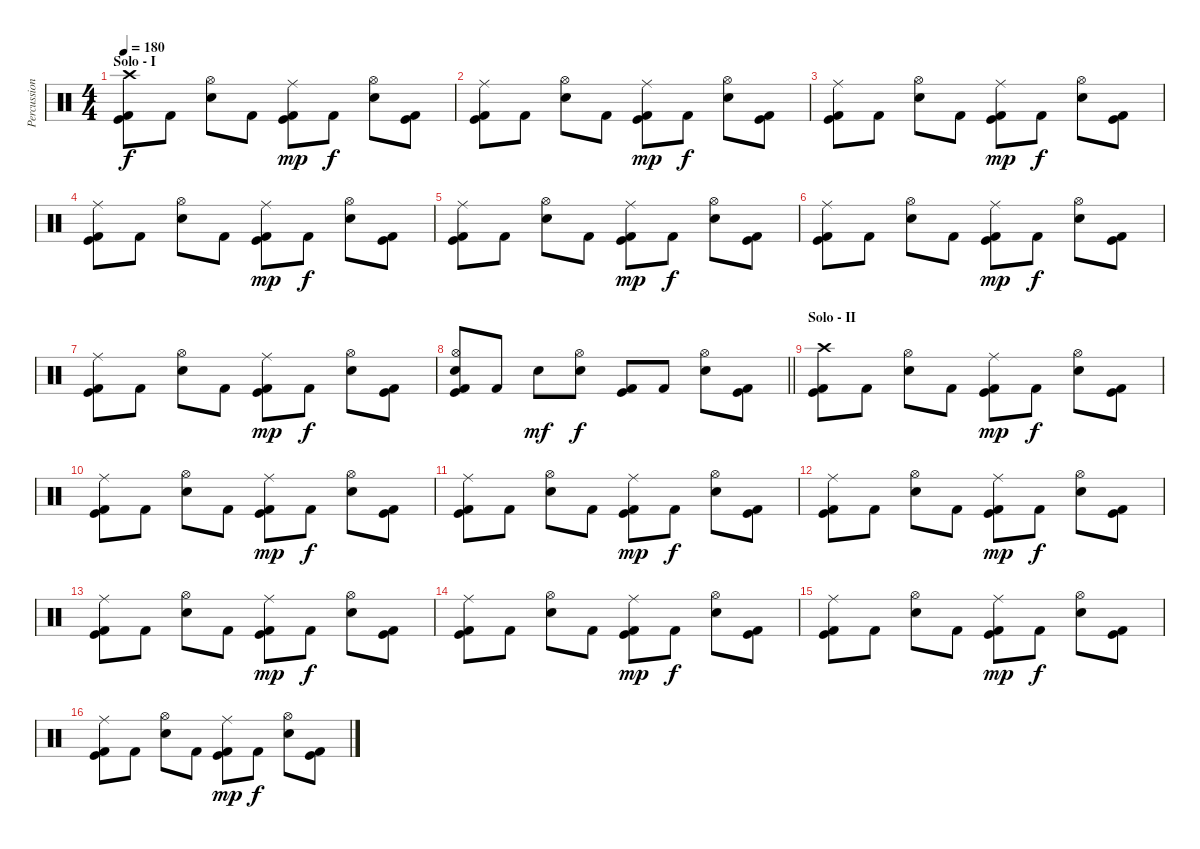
\track ("Percussion" "Percussion") {instrument percussion}
\staff {score}
\articulation defaults
\ts (4 4)
\section ("" "Solo - I")
\tempo 180
\clef neutral
\ks c
("Crash high (hit)" "Kick (hit)" "Kick (hit) 2").8{dy f} "Kick (hit) 2".8 ("Hi-Hat (open)" "Snare (hit) 2").8 "Kick (hit) 2".8 ("Ride (middle)" "Kick (hit)" "Kick (hit) 2").8{dy mp} "Kick (hit) 2".8{dy f} ("Hi-Hat (open)" "Snare (hit) 2").8 ("Kick (hit)" "Kick (hit) 2").8 |
("Ride (middle)" "Kick (hit)" "Kick (hit) 2").8 "Kick (hit) 2".8 ("Hi-Hat (open)" "Snare (hit) 2").8 "Kick (hit) 2".8 ("Ride (middle)" "Kick (hit)" "Kick (hit) 2").8{dy mp} "Kick (hit) 2".8{dy f} ("Hi-Hat (open)" "Snare (hit) 2").8 ("Kick (hit)" "Kick (hit) 2").8 |
("Ride (middle)" "Kick (hit)" "Kick (hit) 2").8 "Kick (hit) 2".8 ("Hi-Hat (open)" "Snare (hit) 2").8 "Kick (hit) 2".8 ("Ride (middle)" "Kick (hit)" "Kick (hit) 2").8{dy mp} "Kick (hit) 2".8{dy f} ("Hi-Hat (open)" "Snare (hit) 2").8 ("Kick (hit)" "Kick (hit) 2").8 |
("Ride (middle)" "Kick (hit)" "Kick (hit) 2").8 "Kick (hit) 2".8 ("Hi-Hat (open)" "Snare (hit) 2").8 "Kick (hit) 2".8 ("Ride (middle)" "Kick (hit)" "Kick (hit) 2").8{dy mp} "Kick (hit) 2".8{dy f} ("Hi-Hat (open)" "Snare (hit) 2").8 ("Kick (hit)" "Kick (hit) 2").8 |
("Ride (middle)" "Kick (hit)" "Kick (hit) 2").8 "Kick (hit) 2".8 ("Hi-Hat (open)" "Snare (hit) 2").8 "Kick (hit) 2".8 ("Ride (middle)" "Kick (hit)" "Kick (hit) 2").8{dy mp} "Kick (hit) 2".8{dy f} ("Hi-Hat (open)" "Snare (hit) 2").8 ("Kick (hit)" "Kick (hit) 2").8 |
("Ride (middle)" "Kick (hit)" "Kick (hit) 2").8 "Kick (hit) 2".8 ("Hi-Hat (open)" "Snare (hit) 2").8 "Kick (hit) 2".8 ("Ride (middle)" "Kick (hit)" "Kick (hit) 2").8{dy mp} "Kick (hit) 2".8{dy f} ("Hi-Hat (open)" "Snare (hit) 2").8 ("Kick (hit)" "Kick (hit) 2").8 |
("Ride (middle)" "Kick (hit)" "Kick (hit) 2").8 "Kick (hit) 2".8 ("Hi-Hat (open)" "Snare (hit) 2").8 "Kick (hit) 2".8 ("Ride (middle)" "Kick (hit)" "Kick (hit) 2").8{dy mp} "Kick (hit) 2".8{dy f} ("Hi-Hat (open)" "Snare (hit) 2").8 ("Kick (hit)" "Kick (hit) 2").8 |
\barLineRight lightlight
("Hi-Hat (open)" "Snare (hit) 2" "Kick (hit)" "Kick (hit) 2").8 "Kick (hit) 2".8 "Snare (hit) 2".8{dy mf} ("Hi-Hat (open)" "Snare (hit) 2").8{dy f} ("Kick (hit)" "Kick (hit) 2").8 "Kick (hit) 2".8 ("Hi-Hat (open)" "Snare (hit) 2").8 ("Kick (hit)" "Kick (hit) 2").8 |
\section ("" "Solo - II")
("Crash high (hit)" "Kick (hit)" "Kick (hit) 2").8 "Kick (hit) 2".8 ("Hi-Hat (open)" "Snare (hit) 2").8 "Kick (hit) 2".8 ("Ride (middle)" "Kick (hit)" "Kick (hit) 2").8{dy mp} "Kick (hit) 2".8{dy f} ("Hi-Hat (open)" "Snare (hit) 2").8 ("Kick (hit)" "Kick (hit) 2").8 |
("Ride (middle)" "Kick (hit)" "Kick (hit) 2").8 "Kick (hit) 2".8 ("Hi-Hat (open)" "Snare (hit) 2").8 "Kick (hit) 2".8 ("Ride (middle)" "Kick (hit)" "Kick (hit) 2").8{dy mp} "Kick (hit) 2".8{dy f} ("Hi-Hat (open)" "Snare (hit) 2").8 ("Kick (hit)" "Kick (hit) 2").8 |
("Ride (middle)" "Kick (hit)" "Kick (hit) 2").8 "Kick (hit) 2".8 ("Hi-Hat (open)" "Snare (hit) 2").8 "Kick (hit) 2".8 ("Ride (middle)" "Kick (hit)" "Kick (hit) 2").8{dy mp} "Kick (hit) 2".8{dy f} ("Hi-Hat (open)" "Snare (hit) 2").8 ("Kick (hit)" "Kick (hit) 2").8 |
("Ride (middle)" "Kick (hit)" "Kick (hit) 2").8 "Kick (hit) 2".8 ("Hi-Hat (open)" "Snare (hit) 2").8 "Kick (hit) 2".8 ("Ride (middle)" "Kick (hit)" "Kick (hit) 2").8{dy mp} "Kick (hit) 2".8{dy f} ("Hi-Hat (open)" "Snare (hit) 2").8 ("Kick (hit)" "Kick (hit) 2").8 |
("Ride (middle)" "Kick (hit)" "Kick (hit) 2").8 "Kick (hit) 2".8 ("Hi-Hat (open)" "Snare (hit) 2").8 "Kick (hit) 2".8 ("Ride (middle)" "Kick (hit)" "Kick (hit) 2").8{dy mp} "Kick (hit) 2".8{dy f} ("Hi-Hat (open)" "Snare (hit) 2").8 ("Kick (hit)" "Kick (hit) 2").8 |
("Ride (middle)" "Kick (hit)" "Kick (hit) 2").8 "Kick (hit) 2".8 ("Hi-Hat (open)" "Snare (hit) 2").8 "Kick (hit) 2".8 ("Ride (middle)" "Kick (hit)" "Kick (hit) 2").8{dy mp} "Kick (hit) 2".8{dy f} ("Hi-Hat (open)" "Snare (hit) 2").8 ("Kick (hit)" "Kick (hit) 2").8 |
("Ride (middle)" "Kick (hit)" "Kick (hit) 2").8 "Kick (hit) 2".8 ("Hi-Hat (open)" "Snare (hit) 2").8 "Kick (hit) 2".8 ("Ride (middle)" "Kick (hit)" "Kick (hit) 2").8{dy mp} "Kick (hit) 2".8{dy f} ("Hi-Hat (open)" "Snare (hit) 2").8 ("Kick (hit)" "Kick (hit) 2").8 |
("Ride (middle)" "Kick (hit)" "Kick (hit) 2").8 "Kick (hit) 2".8 ("Hi-Hat (open)" "Snare (hit) 2").8 "Kick (hit) 2".8 ("Ride (middle)" "Kick (hit)" "Kick (hit) 2").8{dy mp} "Kick (hit) 2".8{dy f} ("Hi-Hat (open)" "Snare (hit) 2").8 ("Kick (hit)" "Kick (hit) 2").8
